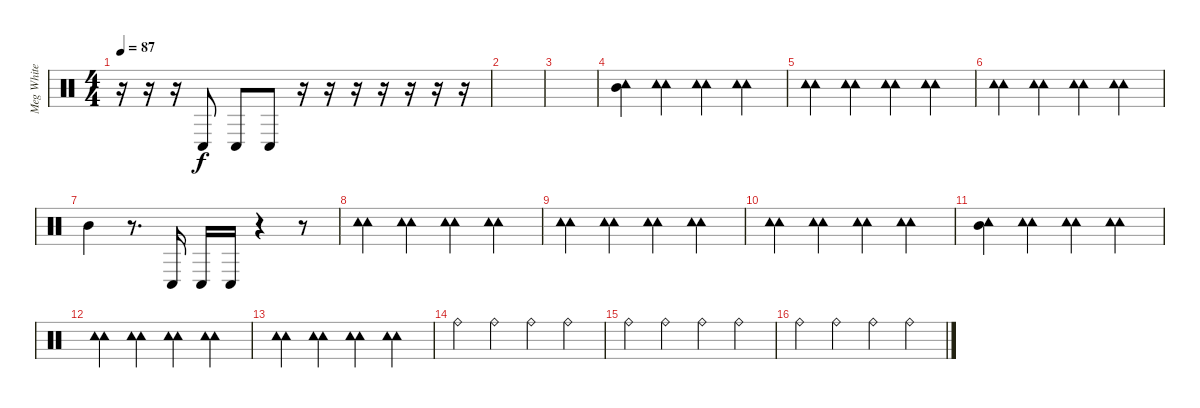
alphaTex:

\track ("Meg White - Drums" "Meg White ") {instrument percussion}
\staff {score}
\articulation defaults
\ts (4 4)
\tempo 87
\clef neutral
\ks c
r.16{dy f} r.16 r.16 "Conga low (hit)".8 "Conga low (hit)".8 "Conga low (hit)".8 r.16 r.16 r.16 r.16 r.16 r.16 r.16 |
|
|
("Tambourine (hit)" "Mid Tom (hit)").4 ("Tambourine (hit)" "Tambourine (hit)").4 ("Tambourine (hit)" "Tambourine (hit)").4 ("Tambourine (hit)" "Tambourine (hit)").4 |
("Tambourine (hit)" "Tambourine (hit)").4 ("Tambourine (hit)" "Tambourine (hit)").4 ("Tambourine (hit)" "Tambourine (hit)").4 ("Tambourine (hit)" "Tambourine (hit)").4 |
("Tambourine (hit)" "Tambourine (hit)").4 ("Tambourine (hit)" "Tambourine (hit)").4 ("Tambourine (hit)" "Tambourine (hit)").4 ("Tambourine (hit)" "Tambourine (hit)").4 |
"Mid Tom (hit)".4 r.8{d} "Conga low (hit)".16 "Conga low (hit)".16 "Conga low (hit)".16 r.4 r.8 |
("Tambourine (hit)" "Tambourine (hit)").4 ("Tambourine (hit)" "Tambourine (hit)").4 ("Tambourine (hit)" "Tambourine (hit)").4 ("Tambourine (hit)" "Tambourine (hit)").4 |
("Tambourine (hit)" "Tambourine (hit)").4 ("Tambourine (hit)" "Tambourine (hit)").4 ("Tambourine (hit)" "Tambourine (hit)").4 ("Tambourine (hit)" "Tambourine (hit)").4 |
("Tambourine (hit)" "Tambourine (hit)").4 ("Tambourine (hit)" "Tambourine (hit)").4 ("Tambourine (hit)" "Tambourine (hit)").4 ("Tambourine (hit)" "Tambourine (hit)").4 |
("Tambourine (hit)" "Mid Tom (hit)").4 ("Tambourine (hit)" "Tambourine (hit)").4 ("Tambourine (hit)" "Tambourine (hit)").4 ("Tambourine (hit)" "Tambourine (hit)").4 |
("Tambourine (hit)" "Tambourine (hit)").4 ("Tambourine (hit)" "Tambourine (hit)").4 ("Tambourine (hit)" "Tambourine (hit)").4 ("Tambourine (hit)" "Tambourine (hit)").4 |
("Tambourine (hit)" "Tambourine (hit)").4 ("Tambourine (hit)" "Tambourine (hit)").4 ("Tambourine (hit)" "Tambourine (hit)").4 ("Tambourine (hit)" "Tambourine (hit)").4 |
"Ride (bell)".4 "Ride (bell)".4 "Ride (bell)".4 "Ride (bell)".4 |
"Ride (bell)".4 "Ride (bell)".4 "Ride (bell)".4 "Ride (bell)".4 |
"Ride (bell)".4 "Ride (bell)".4 "Ride (bell)".4 "Ride (bell)".4
